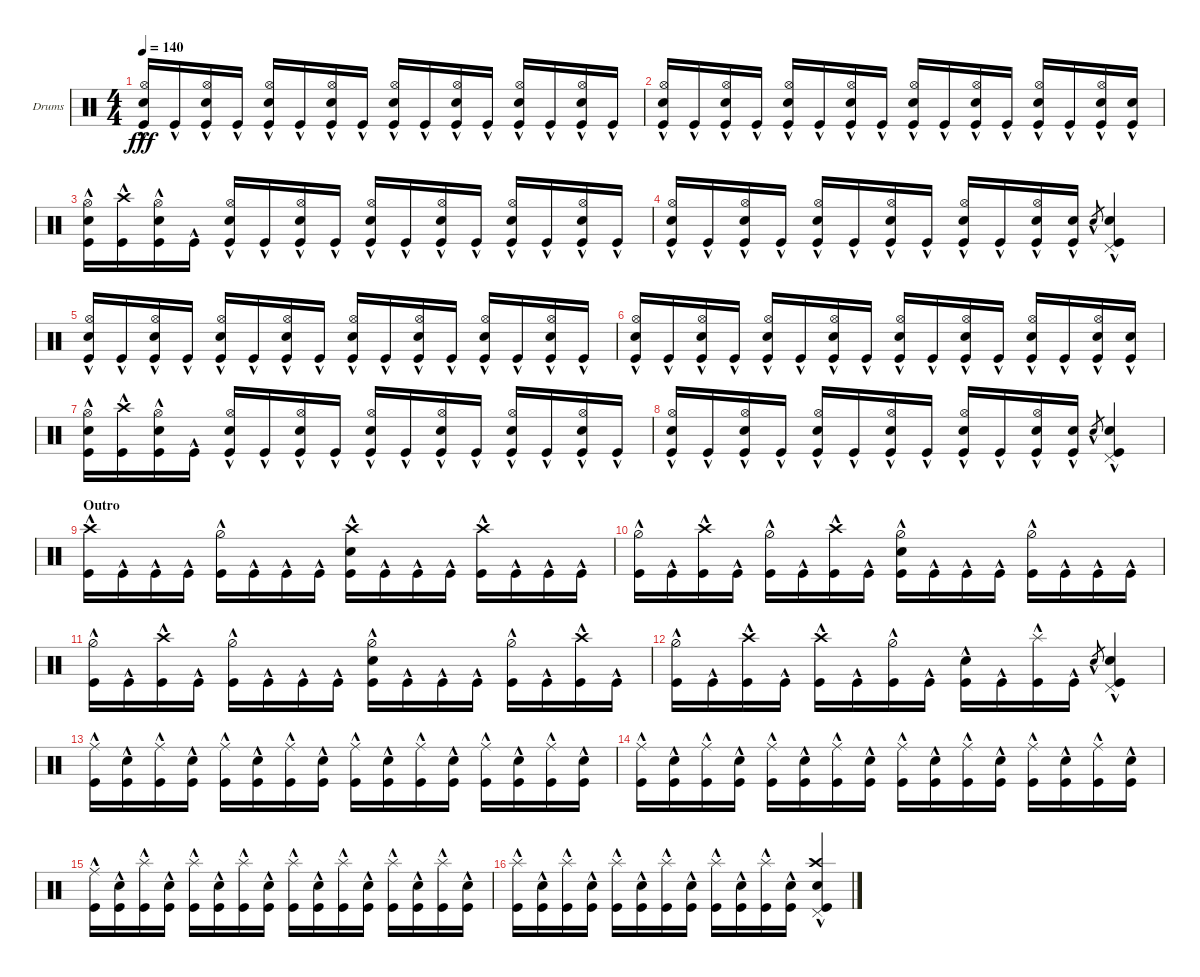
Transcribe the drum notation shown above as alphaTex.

\bracketExtendMode groupsimilarinstruments
\firstSystemTrackNameOrientation horizontal
\otherSystemsTrackNameOrientation horizontal
\track ("BigMc" "Drums") {instrument percussion}
\staff {score}
\articulation defaults
\ts (4 4)
\tempo 140
\clef neutral
\ks c
("Kick (hit)"{hac} "Hi-Hat (open)"{hac} "Snare (hit) 2"{hac}).16{dy fff} "Kick (hit)"{hac}.16 ("Kick (hit)"{hac} "Hi-Hat (open)"{hac} "Snare (hit) 2"{hac}).16 "Kick (hit)"{hac}.16 ("Kick (hit)"{hac} "Hi-Hat (open)"{hac} "Snare (hit) 2"{hac}).16 "Kick (hit)"{hac}.16 ("Kick (hit)"{hac} "Hi-Hat (open)"{hac} "Snare (hit) 2"{hac}).16 "Kick (hit)"{hac}.16 ("Kick (hit)"{hac} "Hi-Hat (open)"{hac} "Snare (hit) 2"{hac}).16 "Kick (hit)"{hac}.16 ("Kick (hit)"{hac} "Hi-Hat (open)"{hac} "Snare (hit) 2"{hac}).16 "Kick (hit)"{hac}.16 ("Kick (hit)"{hac} "Hi-Hat (open)"{hac} "Snare (hit) 2"{hac}).16 "Kick (hit)"{hac}.16 ("Kick (hit)"{hac} "Hi-Hat (open)"{hac} "Snare (hit) 2"{hac}).16 "Kick (hit)"{hac}.16 |
("Kick (hit)"{hac} "Hi-Hat (open)"{hac} "Snare (hit) 2"{hac}).16 "Kick (hit)"{hac}.16 ("Kick (hit)"{hac} "Hi-Hat (open)"{hac} "Snare (hit) 2"{hac}).16 "Kick (hit)"{hac}.16 ("Kick (hit)"{hac} "Hi-Hat (open)"{hac} "Snare (hit) 2"{hac}).16 "Kick (hit)"{hac}.16 ("Kick (hit)"{hac} "Hi-Hat (open)"{hac} "Snare (hit) 2"{hac}).16 "Kick (hit)"{hac}.16 ("Kick (hit)"{hac} "Hi-Hat (open)"{hac} "Snare (hit) 2"{hac}).16 "Kick (hit)"{hac}.16 ("Kick (hit)"{hac} "Hi-Hat (open)"{hac} "Snare (hit) 2"{hac}).16 "Kick (hit)"{hac}.16 ("Kick (hit)"{hac} "Hi-Hat (open)"{hac} "Snare (hit) 2"{hac}).16 "Kick (hit)"{hac}.16 ("Kick (hit)"{hac} "Hi-Hat (open)"{hac} "Snare (hit) 2"{hac}).16 ("Kick (hit)"{hac} "Snare (hit) 2"{hac}).16 |
("Kick (hit)"{hac} "Hi-Hat (open)"{hac} "Snare (hit) 2"{hac}).16 ("Kick (hit)"{hac} "Crash high (hit)"{hac}).16 ("Kick (hit)"{hac} "Hi-Hat (open)"{hac} "Snare (hit) 2"{hac}).16 "Kick (hit)"{hac}.16 ("Kick (hit)"{hac} "Hi-Hat (open)"{hac} "Snare (hit) 2"{hac}).16 "Kick (hit)"{hac}.16 ("Kick (hit)"{hac} "Hi-Hat (open)"{hac} "Snare (hit) 2"{hac}).16 "Kick (hit)"{hac}.16 ("Kick (hit)"{hac} "Hi-Hat (open)"{hac} "Snare (hit) 2"{hac}).16 "Kick (hit)"{hac}.16 ("Kick (hit)"{hac} "Hi-Hat (open)"{hac} "Snare (hit) 2"{hac}).16 "Kick (hit)"{hac}.16 ("Kick (hit)"{hac} "Hi-Hat (open)"{hac} "Snare (hit) 2"{hac}).16 "Kick (hit)"{hac}.16 ("Kick (hit)"{hac} "Hi-Hat (open)"{hac} "Snare (hit) 2"{hac}).16 "Kick (hit)"{hac}.16 |
("Kick (hit)"{hac} "Hi-Hat (open)"{hac} "Snare (hit) 2"{hac}).16 "Kick (hit)"{hac}.16 ("Kick (hit)"{hac} "Hi-Hat (open)"{hac} "Snare (hit) 2"{hac}).16 "Kick (hit)"{hac}.16 ("Kick (hit)"{hac} "Hi-Hat (open)"{hac} "Snare (hit) 2"{hac}).16 "Kick (hit)"{hac}.16 ("Kick (hit)"{hac} "Hi-Hat (open)"{hac} "Snare (hit) 2"{hac}).16 "Kick (hit)"{hac}.16 ("Kick (hit)"{hac} "Hi-Hat (open)"{hac} "Snare (hit) 2"{hac}).16 "Kick (hit)"{hac}.16 ("Kick (hit)"{hac} "Hi-Hat (open)"{hac} "Snare (hit) 2"{hac}).16 ("Kick (hit)"{hac} "Snare (hit) 2"{hac}).16 "Snare (hit) 2"{hac}.8{gr} ("Snare (hit) 2"{hac} "Pedal Hi-Hat (hit)"{hac} "Kick (hit)"{hac}).4 |
("Kick (hit)"{hac} "Hi-Hat (open)"{hac} "Snare (hit) 2"{hac}).16 "Kick (hit)"{hac}.16 ("Kick (hit)"{hac} "Hi-Hat (open)"{hac} "Snare (hit) 2"{hac}).16 "Kick (hit)"{hac}.16 ("Kick (hit)"{hac} "Hi-Hat (open)"{hac} "Snare (hit) 2"{hac}).16 "Kick (hit)"{hac}.16 ("Kick (hit)"{hac} "Hi-Hat (open)"{hac} "Snare (hit) 2"{hac}).16 "Kick (hit)"{hac}.16 ("Kick (hit)"{hac} "Hi-Hat (open)"{hac} "Snare (hit) 2"{hac}).16 "Kick (hit)"{hac}.16 ("Kick (hit)"{hac} "Hi-Hat (open)"{hac} "Snare (hit) 2"{hac}).16 "Kick (hit)"{hac}.16 ("Kick (hit)"{hac} "Hi-Hat (open)"{hac} "Snare (hit) 2"{hac}).16 "Kick (hit)"{hac}.16 ("Kick (hit)"{hac} "Hi-Hat (open)"{hac} "Snare (hit) 2"{hac}).16 "Kick (hit)"{hac}.16 |
("Kick (hit)"{hac} "Hi-Hat (open)"{hac} "Snare (hit) 2"{hac}).16 "Kick (hit)"{hac}.16 ("Kick (hit)"{hac} "Hi-Hat (open)"{hac} "Snare (hit) 2"{hac}).16 "Kick (hit)"{hac}.16 ("Kick (hit)"{hac} "Hi-Hat (open)"{hac} "Snare (hit) 2"{hac}).16 "Kick (hit)"{hac}.16 ("Kick (hit)"{hac} "Hi-Hat (open)"{hac} "Snare (hit) 2"{hac}).16 "Kick (hit)"{hac}.16 ("Kick (hit)"{hac} "Hi-Hat (open)"{hac} "Snare (hit) 2"{hac}).16 "Kick (hit)"{hac}.16 ("Kick (hit)"{hac} "Hi-Hat (open)"{hac} "Snare (hit) 2"{hac}).16 "Kick (hit)"{hac}.16 ("Kick (hit)"{hac} "Hi-Hat (open)"{hac} "Snare (hit) 2"{hac}).16 "Kick (hit)"{hac}.16 ("Kick (hit)"{hac} "Hi-Hat (open)"{hac} "Snare (hit) 2"{hac}).16 ("Kick (hit)"{hac} "Snare (hit) 2"{hac}).16 |
("Kick (hit)"{hac} "Hi-Hat (open)"{hac} "Snare (hit) 2"{hac}).16 ("Kick (hit)"{hac} "Crash high (hit)"{hac}).16 ("Kick (hit)"{hac} "Hi-Hat (open)"{hac} "Snare (hit) 2"{hac}).16 "Kick (hit)"{hac}.16 ("Kick (hit)"{hac} "Hi-Hat (open)"{hac} "Snare (hit) 2"{hac}).16 "Kick (hit)"{hac}.16 ("Kick (hit)"{hac} "Hi-Hat (open)"{hac} "Snare (hit) 2"{hac}).16 "Kick (hit)"{hac}.16 ("Kick (hit)"{hac} "Hi-Hat (open)"{hac} "Snare (hit) 2"{hac}).16 "Kick (hit)"{hac}.16 ("Kick (hit)"{hac} "Hi-Hat (open)"{hac} "Snare (hit) 2"{hac}).16 "Kick (hit)"{hac}.16 ("Kick (hit)"{hac} "Hi-Hat (open)"{hac} "Snare (hit) 2"{hac}).16 "Kick (hit)"{hac}.16 ("Kick (hit)"{hac} "Hi-Hat (open)"{hac} "Snare (hit) 2"{hac}).16 "Kick (hit)"{hac}.16 |
("Kick (hit)"{hac} "Hi-Hat (open)"{hac} "Snare (hit) 2"{hac}).16 "Kick (hit)"{hac}.16 ("Kick (hit)"{hac} "Hi-Hat (open)"{hac} "Snare (hit) 2"{hac}).16 "Kick (hit)"{hac}.16 ("Kick (hit)"{hac} "Hi-Hat (open)"{hac} "Snare (hit) 2"{hac}).16 "Kick (hit)"{hac}.16 ("Kick (hit)"{hac} "Hi-Hat (open)"{hac} "Snare (hit) 2"{hac}).16 "Kick (hit)"{hac}.16 ("Kick (hit)"{hac} "Hi-Hat (open)"{hac} "Snare (hit) 2"{hac}).16 "Kick (hit)"{hac}.16 ("Kick (hit)"{hac} "Hi-Hat (open)"{hac} "Snare (hit) 2"{hac}).16 ("Kick (hit)"{hac} "Snare (hit) 2"{hac}).16 "Snare (hit) 2"{hac}.8{gr} ("Snare (hit) 2"{hac} "Pedal Hi-Hat (hit)"{hac} "Kick (hit)"{hac}).4 |
\section ("" "Outro")
("Kick (hit)"{hac} "Crash high (hit)"{hac}).16 "Kick (hit)"{hac}.16 "Kick (hit)"{hac}.16 "Kick (hit)"{hac}.16 ("Kick (hit)"{hac} "Hi-Hat (half)"{hac}).16 "Kick (hit)"{hac}.16 "Kick (hit)"{hac}.16 "Kick (hit)"{hac}.16 ("Kick (hit)"{hac} "Snare (hit) 2"{hac} "Crash high (hit)"{hac}).16 "Kick (hit)"{hac}.16 "Kick (hit)"{hac}.16 "Kick (hit)"{hac}.16 ("Kick (hit)"{hac} "Crash high (hit)"{hac}).16 "Kick (hit)"{hac}.16 "Kick (hit)"{hac}.16 "Kick (hit)"{hac}.16 |
("Kick (hit)"{hac} "Hi-Hat (half)"{hac}).16 "Kick (hit)"{hac}.16 ("Kick (hit)"{hac} "Crash high (hit)"{hac}).16 "Kick (hit)"{hac}.16 ("Kick (hit)"{hac} "Hi-Hat (half)"{hac}).16 "Kick (hit)"{hac}.16 ("Kick (hit)"{hac} "Crash high (hit)"{hac}).16 "Kick (hit)"{hac}.16 ("Kick (hit)"{hac} "Snare (hit) 2"{hac} "Hi-Hat (half)"{hac}).16 "Kick (hit)"{hac}.16 "Kick (hit)"{hac}.16 "Kick (hit)"{hac}.16 ("Kick (hit)"{hac} "Hi-Hat (half)"{hac}).16 "Kick (hit)"{hac}.16 "Kick (hit)"{hac}.16 "Kick (hit)"{hac}.16 |
("Kick (hit)"{hac} "Hi-Hat (half)"{hac}).16 "Kick (hit)"{hac}.16 ("Kick (hit)"{hac} "Crash high (hit)"{hac}).16 "Kick (hit)"{hac}.16 ("Kick (hit)"{hac} "Hi-Hat (half)"{hac}).16 "Kick (hit)"{hac}.16 "Kick (hit)"{hac}.16 "Kick (hit)"{hac}.16 ("Kick (hit)"{hac} "Snare (hit) 2"{hac} "Hi-Hat (half)"{hac}).16 "Kick (hit)"{hac}.16 "Kick (hit)"{hac}.16 "Kick (hit)"{hac}.16 ("Kick (hit)"{hac} "Hi-Hat (half)"{hac}).16 "Kick (hit)"{hac}.16 ("Kick (hit)"{hac} "Crash high (hit)"{hac}).16 "Kick (hit)"{hac}.16 |
("Kick (hit)"{hac} "Hi-Hat (half)"{hac}).16 "Kick (hit)"{hac}.16 ("Kick (hit)"{hac} "Crash high (hit)"{hac}).16 "Kick (hit)"{hac}.16 ("Kick (hit)"{hac} "Crash high (hit)"{hac}).16 "Kick (hit)"{hac}.16 ("Kick (hit)"{hac} "Hi-Hat (half)"{hac}).16 "Kick (hit)"{hac}.16 ("Kick (hit)"{hac} "Snare (hit) 2"{hac}).16 "Kick (hit)"{hac}.16 ("Kick (hit)"{hac} "Splash (hit)"{hac}).16 "Kick (hit)"{hac}.16 "Snare (hit) 2"{hac}.8{gr} ("Snare (hit) 2"{hac} "Pedal Hi-Hat (hit)"{hac} "Kick (hit)"{hac}).4 |
("Kick (hit)"{hac} "Ride (middle)"{hac}).16 ("Snare (hit) 2"{hac} "Kick (hit)"{hac}).16 ("Kick (hit)"{hac} "Ride (middle)"{hac}).16 ("Snare (hit) 2"{hac} "Kick (hit)"{hac}).16 ("Kick (hit)"{hac} "Ride (middle)"{hac}).16 ("Snare (hit) 2"{hac} "Kick (hit)"{hac}).16 ("Kick (hit)"{hac} "Ride (middle)"{hac}).16 ("Snare (hit) 2"{hac} "Kick (hit)"{hac}).16 ("Kick (hit)"{hac} "Ride (middle)"{hac}).16 ("Snare (hit) 2"{hac} "Kick (hit)"{hac}).16 ("Kick (hit)"{hac} "Ride (middle)"{hac}).16 ("Snare (hit) 2"{hac} "Kick (hit)"{hac}).16 ("Kick (hit)"{hac} "Ride (middle)"{hac}).16 ("Snare (hit) 2"{hac} "Kick (hit)"{hac}).16 ("Kick (hit)"{hac} "Ride (middle)"{hac}).16 ("Snare (hit) 2"{hac} "Kick (hit)"{hac}).16 |
("Kick (hit)"{hac} "Ride (middle)"{hac}).16 ("Snare (hit) 2"{hac} "Kick (hit)"{hac}).16 ("Kick (hit)"{hac} "Ride (middle)"{hac}).16 ("Snare (hit) 2"{hac} "Kick (hit)"{hac}).16 ("Kick (hit)"{hac} "Ride (middle)"{hac}).16 ("Snare (hit) 2"{hac} "Kick (hit)"{hac}).16 ("Kick (hit)"{hac} "Ride (middle)"{hac}).16 ("Snare (hit) 2"{hac} "Kick (hit)"{hac}).16 ("Kick (hit)"{hac} "Ride (middle)"{hac}).16 ("Snare (hit) 2"{hac} "Kick (hit)"{hac}).16 ("Kick (hit)"{hac} "Ride (middle)"{hac}).16 ("Snare (hit) 2"{hac} "Kick (hit)"{hac}).16 ("Kick (hit)"{hac} "Ride (middle)"{hac}).16 ("Snare (hit) 2"{hac} "Kick (hit)"{hac}).16 ("Kick (hit)"{hac} "Ride (middle)"{hac}).16 ("Snare (hit) 2"{hac} "Kick (hit)"{hac}).16 |
("Kick (hit)"{hac} "Ride (middle)"{hac}).16 ("Snare (hit) 2"{hac} "Kick (hit)"{hac}).16 ("Kick (hit)"{hac} "Splash (hit)"{hac}).16 ("Snare (hit) 2"{hac} "Kick (hit)"{hac}).16 ("Kick (hit)"{hac} "Splash (hit)"{hac}).16 ("Snare (hit) 2"{hac} "Kick (hit)"{hac}).16 ("Kick (hit)"{hac} "Splash (hit)"{hac}).16 ("Snare (hit) 2"{hac} "Kick (hit)"{hac}).16 ("Kick (hit)"{hac} "Splash (hit)"{hac}).16 ("Snare (hit) 2"{hac} "Kick (hit)"{hac}).16 ("Kick (hit)"{hac} "Splash (hit)"{hac}).16 ("Snare (hit) 2"{hac} "Kick (hit)"{hac}).16 ("Kick (hit)"{hac} "Splash (hit)"{hac}).16 ("Snare (hit) 2"{hac} "Kick (hit)"{hac}).16 ("Kick (hit)"{hac} "Splash (hit)"{hac}).16 ("Snare (hit) 2"{hac} "Kick (hit)"{hac}).16 |
("Kick (hit)"{hac} "Splash (hit)"{hac}).16 ("Snare (hit) 2"{hac} "Kick (hit)"{hac}).16 ("Kick (hit)"{hac} "Splash (hit)"{hac}).16 ("Snare (hit) 2"{hac} "Kick (hit)"{hac}).16 ("Kick (hit)"{hac} "Splash (hit)"{hac}).16 ("Snare (hit) 2"{hac} "Kick (hit)"{hac}).16 ("Kick (hit)"{hac} "Splash (hit)"{hac}).16 ("Snare (hit) 2"{hac} "Kick (hit)"{hac}).16 ("Kick (hit)"{hac} "Splash (hit)"{hac}).16 ("Snare (hit) 2"{hac} "Kick (hit)"{hac}).16 ("Kick (hit)"{hac} "Splash (hit)"{hac}).16 ("Snare (hit) 2"{hac} "Kick (hit)"{hac}).16 ("Snare (hit) 2"{hac} "Pedal Hi-Hat (hit)"{hac} "Kick (hit)"{hac} "Crash high (hit)"{hac}).4
